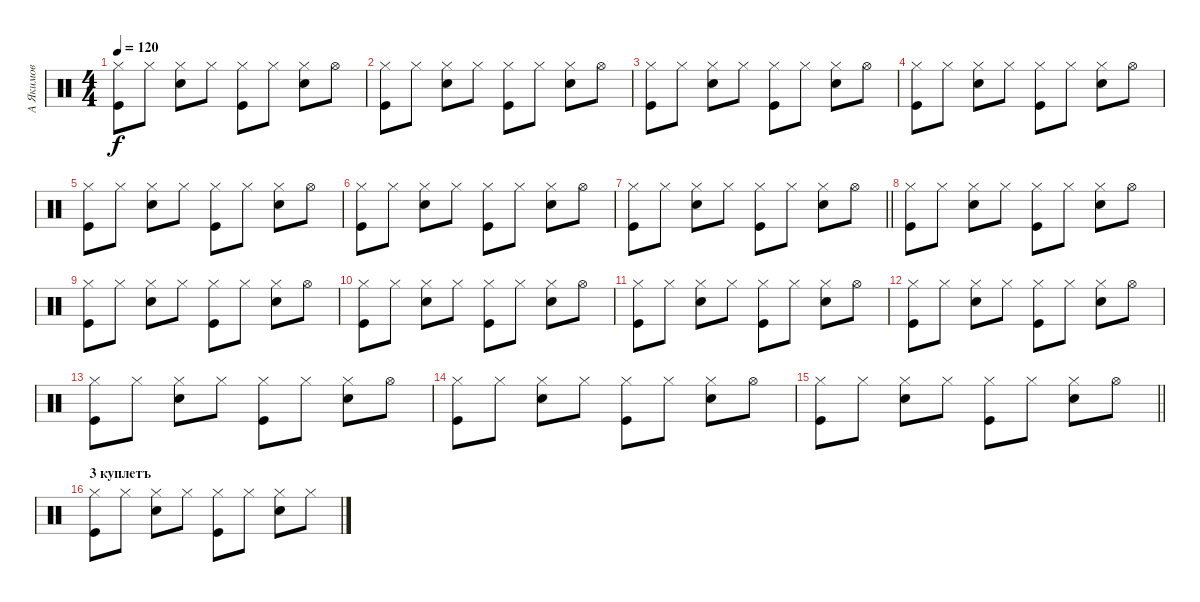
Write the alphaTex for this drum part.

\track ("А Якимов" "А Якимов") {instrument percussion}
\staff {score}
\articulation defaults
\ts (4 4)
\tempo 120
\clef neutral
\ks c
("Hi-Hat (closed)" "Kick (hit)").8{dy f} "Hi-Hat (closed)".8 ("Hi-Hat (closed)" "Snare (hit) 2").8 "Hi-Hat (closed)".8 ("Hi-Hat (closed)" "Kick (hit)").8 "Hi-Hat (closed)".8 ("Snare (hit) 2" "Hi-Hat (closed)").8 "Hi-Hat (open)".8 |
("Hi-Hat (closed)" "Kick (hit)").8 "Hi-Hat (closed)".8 ("Hi-Hat (closed)" "Snare (hit) 2").8 "Hi-Hat (closed)".8 ("Hi-Hat (closed)" "Kick (hit)").8 "Hi-Hat (closed)".8 ("Snare (hit) 2" "Hi-Hat (closed)").8 "Hi-Hat (open)".8 |
("Hi-Hat (closed)" "Kick (hit)").8 "Hi-Hat (closed)".8 ("Hi-Hat (closed)" "Snare (hit) 2").8 "Hi-Hat (closed)".8 ("Hi-Hat (closed)" "Kick (hit)").8 "Hi-Hat (closed)".8 ("Snare (hit) 2" "Hi-Hat (closed)").8 "Hi-Hat (open)".8 |
("Hi-Hat (closed)" "Kick (hit)").8 "Hi-Hat (closed)".8 ("Hi-Hat (closed)" "Snare (hit) 2").8 "Hi-Hat (closed)".8 ("Hi-Hat (closed)" "Kick (hit)").8 "Hi-Hat (closed)".8 ("Snare (hit) 2" "Hi-Hat (closed)").8 "Hi-Hat (open)".8 |
("Hi-Hat (closed)" "Kick (hit)").8 "Hi-Hat (closed)".8 ("Hi-Hat (closed)" "Snare (hit) 2").8 "Hi-Hat (closed)".8 ("Hi-Hat (closed)" "Kick (hit)").8 "Hi-Hat (closed)".8 ("Snare (hit) 2" "Hi-Hat (closed)").8 "Hi-Hat (open)".8 |
("Hi-Hat (closed)" "Kick (hit)").8 "Hi-Hat (closed)".8 ("Hi-Hat (closed)" "Snare (hit) 2").8 "Hi-Hat (closed)".8 ("Hi-Hat (closed)" "Kick (hit)").8 "Hi-Hat (closed)".8 ("Snare (hit) 2" "Hi-Hat (closed)").8 "Hi-Hat (open)".8 |
\barLineRight lightlight
("Hi-Hat (closed)" "Kick (hit)").8 "Hi-Hat (closed)".8 ("Hi-Hat (closed)" "Snare (hit) 2").8 "Hi-Hat (closed)".8 ("Hi-Hat (closed)" "Kick (hit)").8 "Hi-Hat (closed)".8 ("Snare (hit) 2" "Hi-Hat (closed)").8 "Hi-Hat (open)".8 |
("Hi-Hat (closed)" "Kick (hit)").8 "Hi-Hat (closed)".8 ("Hi-Hat (closed)" "Snare (hit) 2").8 "Hi-Hat (closed)".8 ("Hi-Hat (closed)" "Kick (hit)").8 "Hi-Hat (closed)".8 ("Snare (hit) 2" "Hi-Hat (closed)").8 "Hi-Hat (open)".8 |
("Hi-Hat (closed)" "Kick (hit)").8 "Hi-Hat (closed)".8 ("Hi-Hat (closed)" "Snare (hit) 2").8 "Hi-Hat (closed)".8 ("Hi-Hat (closed)" "Kick (hit)").8 "Hi-Hat (closed)".8 ("Snare (hit) 2" "Hi-Hat (closed)").8 "Hi-Hat (open)".8 |
("Hi-Hat (closed)" "Kick (hit)").8 "Hi-Hat (closed)".8 ("Hi-Hat (closed)" "Snare (hit) 2").8 "Hi-Hat (closed)".8 ("Hi-Hat (closed)" "Kick (hit)").8 "Hi-Hat (closed)".8 ("Snare (hit) 2" "Hi-Hat (closed)").8 "Hi-Hat (open)".8 |
("Hi-Hat (closed)" "Kick (hit)").8 "Hi-Hat (closed)".8 ("Hi-Hat (closed)" "Snare (hit) 2").8 "Hi-Hat (closed)".8 ("Hi-Hat (closed)" "Kick (hit)").8 "Hi-Hat (closed)".8 ("Snare (hit) 2" "Hi-Hat (closed)").8 "Hi-Hat (open)".8 |
("Hi-Hat (closed)" "Kick (hit)").8 "Hi-Hat (closed)".8 ("Hi-Hat (closed)" "Snare (hit) 2").8 "Hi-Hat (closed)".8 ("Hi-Hat (closed)" "Kick (hit)").8 "Hi-Hat (closed)".8 ("Snare (hit) 2" "Hi-Hat (closed)").8 "Hi-Hat (open)".8 |
("Hi-Hat (closed)" "Kick (hit)").8 "Hi-Hat (closed)".8 ("Hi-Hat (closed)" "Snare (hit) 2").8 "Hi-Hat (closed)".8 ("Hi-Hat (closed)" "Kick (hit)").8 "Hi-Hat (closed)".8 ("Snare (hit) 2" "Hi-Hat (closed)").8 "Hi-Hat (open)".8 |
("Hi-Hat (closed)" "Kick (hit)").8 "Hi-Hat (closed)".8 ("Hi-Hat (closed)" "Snare (hit) 2").8 "Hi-Hat (closed)".8 ("Hi-Hat (closed)" "Kick (hit)").8 "Hi-Hat (closed)".8 ("Snare (hit) 2" "Hi-Hat (closed)").8 "Hi-Hat (open)".8 |
\barLineRight lightlight
("Hi-Hat (closed)" "Kick (hit)").8 "Hi-Hat (closed)".8 ("Hi-Hat (closed)" "Snare (hit) 2").8 "Hi-Hat (closed)".8 ("Hi-Hat (closed)" "Kick (hit)").8 "Hi-Hat (closed)".8 ("Snare (hit) 2" "Hi-Hat (closed)").8 "Hi-Hat (open)".8 |
\section ("" "3 куплетъ")
("Hi-Hat (closed)" "Kick (hit)").8 "Hi-Hat (closed)".8 ("Hi-Hat (closed)" "Snare (hit) 2").8 "Hi-Hat (closed)".8 ("Hi-Hat (closed)" "Kick (hit)").8 "Hi-Hat (closed)".8 ("Hi-Hat (closed)" "Snare (hit) 2").8 "Hi-Hat (closed)".8
